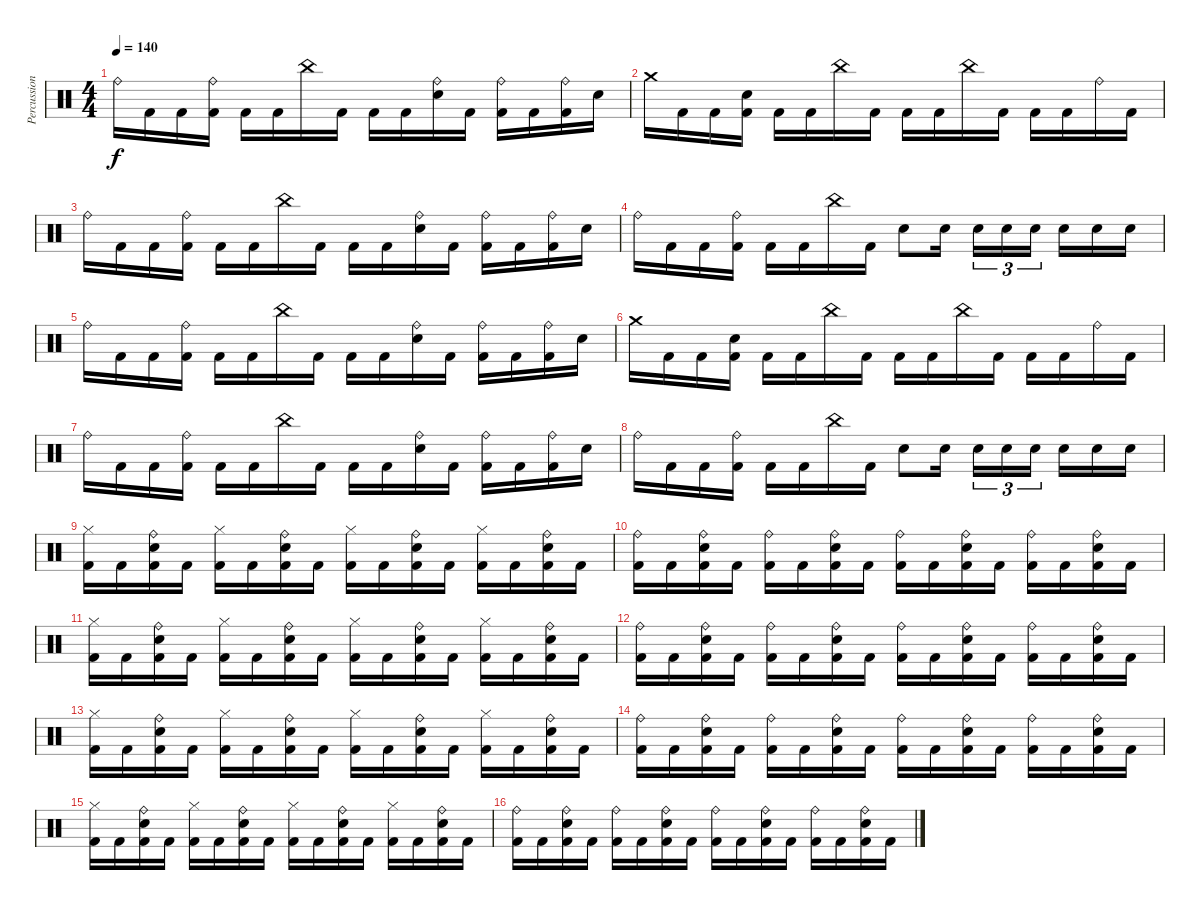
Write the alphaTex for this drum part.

\track ("Percussion" "Percussion") {instrument percussion}
\staff {score}
\articulation defaults
\ts (4 4)
\tempo 140
\clef neutral
\ks c "Ride (bell)".16{dy f} "Kick (hit) 2".16 "Kick (hit) 2".16
("Ride (bell)" "Kick (hit) 2").16 "Kick (hit) 2".16 "Kick (hit) 2".16 "China (hit)".16 "Kick (hit) 2".16 "Kick (hit) 2".16 "Kick (hit) 2".16 ("Ride (bell)" "Snare (hit) 2").16 "Kick (hit) 2".16 ("Ride (bell)" "Kick (hit) 2").16 "Kick (hit) 2".16 ("Ride (bell)" "Kick (hit) 2").16 "Snare (hit) 2".16 |
"Crash medium (hit)".16 "Kick (hit) 2".16 "Kick (hit) 2".16 ("Snare (hit) 2" "Kick (hit) 2").16 "Kick (hit) 2".16 "Kick (hit) 2".16 "China (hit)".16 "Kick (hit) 2".16 "Kick (hit) 2".16 "Kick (hit) 2".16 "China (hit)".16 "Kick (hit) 2".16 "Kick (hit) 2".16 "Kick (hit) 2".16 "Ride (bell)".16 "Kick (hit) 2".16 |
"Ride (bell)".16 "Kick (hit) 2".16 "Kick (hit) 2".16 ("Ride (bell)" "Kick (hit) 2").16 "Kick (hit) 2".16 "Kick (hit) 2".16 "China (hit)".16 "Kick (hit) 2".16 "Kick (hit) 2".16 "Kick (hit) 2".16 ("Ride (bell)" "Snare (hit) 2").16 "Kick (hit) 2".16 ("Ride (bell)" "Kick (hit) 2").16 "Kick (hit) 2".16 ("Ride (bell)" "Kick (hit) 2").16 "Snare (hit) 2".16 |
"Ride (bell)".16 "Kick (hit) 2".16 "Kick (hit) 2".16 ("Ride (bell)" "Kick (hit) 2").16 "Kick (hit) 2".16 "Kick (hit) 2".16 "China (hit)".16 "Kick (hit) 2".16 "Snare (hit) 2".8 "Snare (hit) 2".16{beam splitsecondary} "Snare (hit) 2".16{tu (3 2)} "Snare (hit) 2".16{tu (3 2)} "Snare (hit) 2".16{tu (3 2) beam splitsecondary} "Snare (hit) 2".16 "Snare (hit) 2".16 "Snare (hit) 2".16 |
"Ride (bell)".16 "Kick (hit) 2".16 "Kick (hit) 2".16 ("Ride (bell)" "Kick (hit) 2").16 "Kick (hit) 2".16 "Kick (hit) 2".16 "China (hit)".16 "Kick (hit) 2".16 "Kick (hit) 2".16 "Kick (hit) 2".16 ("Ride (bell)" "Snare (hit) 2").16 "Kick (hit) 2".16 ("Ride (bell)" "Kick (hit) 2").16 "Kick (hit) 2".16 ("Ride (bell)" "Kick (hit) 2").16 "Snare (hit) 2".16 |
"Crash medium (hit)".16 "Kick (hit) 2".16 "Kick (hit) 2".16 ("Snare (hit) 2" "Kick (hit) 2").16 "Kick (hit) 2".16 "Kick (hit) 2".16 "China (hit)".16 "Kick (hit) 2".16 "Kick (hit) 2".16 "Kick (hit) 2".16 "China (hit)".16 "Kick (hit) 2".16 "Kick (hit) 2".16 "Kick (hit) 2".16 "Ride (bell)".16 "Kick (hit) 2".16 |
"Ride (bell)".16 "Kick (hit) 2".16 "Kick (hit) 2".16 ("Ride (bell)" "Kick (hit) 2").16 "Kick (hit) 2".16 "Kick (hit) 2".16 "China (hit)".16 "Kick (hit) 2".16 "Kick (hit) 2".16 "Kick (hit) 2".16 ("Ride (bell)" "Snare (hit) 2").16 "Kick (hit) 2".16 ("Ride (bell)" "Kick (hit) 2").16 "Kick (hit) 2".16 ("Ride (bell)" "Kick (hit) 2").16 "Snare (hit) 2".16 |
"Ride (bell)".16 "Kick (hit) 2".16 "Kick (hit) 2".16 ("Ride (bell)" "Kick (hit) 2").16 "Kick (hit) 2".16 "Kick (hit) 2".16 "China (hit)".16 "Kick (hit) 2".16 "Snare (hit) 2".8 "Snare (hit) 2".16{beam splitsecondary} "Snare (hit) 2".16{tu (3 2)} "Snare (hit) 2".16{tu (3 2)} "Snare (hit) 2".16{tu (3 2) beam splitsecondary} "Snare (hit) 2".16 "Snare (hit) 2".16 "Snare (hit) 2".16 |
("Hi-Hat (closed)" "Kick (hit) 2").16 "Kick (hit) 2".16 ("Ride (bell)" "Snare (hit) 2" "Kick (hit) 2").16 "Kick (hit) 2".16 ("Hi-Hat (closed)" "Kick (hit) 2").16 "Kick (hit) 2".16 ("Ride (bell)" "Snare (hit) 2" "Kick (hit) 2").16 "Kick (hit) 2".16 ("Hi-Hat (closed)" "Kick (hit) 2").16 "Kick (hit) 2".16 ("Ride (bell)" "Snare (hit) 2" "Kick (hit) 2").16 "Kick (hit) 2".16 ("Hi-Hat (closed)" "Kick (hit) 2").16 "Kick (hit) 2".16 ("Ride (bell)" "Snare (hit) 2" "Kick (hit) 2").16 "Kick (hit) 2".16 |
("Ride (bell)" "Kick (hit) 2").16 "Kick (hit) 2".16 ("Ride (bell)" "Snare (hit) 2" "Kick (hit) 2").16 "Kick (hit) 2".16 ("Ride (bell)" "Kick (hit) 2").16 "Kick (hit) 2".16 ("Ride (bell)" "Snare (hit) 2" "Kick (hit) 2").16 "Kick (hit) 2".16 ("Ride (bell)" "Kick (hit) 2").16 "Kick (hit) 2".16 ("Ride (bell)" "Snare (hit) 2" "Kick (hit) 2").16 "Kick (hit) 2".16 ("Ride (bell)" "Kick (hit) 2").16 "Kick (hit) 2".16 ("Ride (bell)" "Snare (hit) 2" "Kick (hit) 2").16 "Kick (hit) 2".16 |
("Hi-Hat (closed)" "Kick (hit) 2").16 "Kick (hit) 2".16 ("Ride (bell)" "Snare (hit) 2" "Kick (hit) 2").16 "Kick (hit) 2".16 ("Hi-Hat (closed)" "Kick (hit) 2").16 "Kick (hit) 2".16 ("Ride (bell)" "Snare (hit) 2" "Kick (hit) 2").16 "Kick (hit) 2".16 ("Hi-Hat (closed)" "Kick (hit) 2").16 "Kick (hit) 2".16 ("Ride (bell)" "Snare (hit) 2" "Kick (hit) 2").16 "Kick (hit) 2".16 ("Hi-Hat (closed)" "Kick (hit) 2").16 "Kick (hit) 2".16 ("Ride (bell)" "Snare (hit) 2" "Kick (hit) 2").16 "Kick (hit) 2".16 |
("Ride (bell)" "Kick (hit) 2").16 "Kick (hit) 2".16 ("Ride (bell)" "Snare (hit) 2" "Kick (hit) 2").16 "Kick (hit) 2".16 ("Ride (bell)" "Kick (hit) 2").16 "Kick (hit) 2".16 ("Ride (bell)" "Snare (hit) 2" "Kick (hit) 2").16 "Kick (hit) 2".16 ("Ride (bell)" "Kick (hit) 2").16 "Kick (hit) 2".16 ("Ride (bell)" "Snare (hit) 2" "Kick (hit) 2").16 "Kick (hit) 2".16 ("Ride (bell)" "Kick (hit) 2").16 "Kick (hit) 2".16 ("Ride (bell)" "Snare (hit) 2" "Kick (hit) 2").16 "Kick (hit) 2".16 |
("Hi-Hat (closed)" "Kick (hit) 2").16 "Kick (hit) 2".16 ("Ride (bell)" "Snare (hit) 2" "Kick (hit) 2").16 "Kick (hit) 2".16 ("Hi-Hat (closed)" "Kick (hit) 2").16 "Kick (hit) 2".16 ("Ride (bell)" "Snare (hit) 2" "Kick (hit) 2").16 "Kick (hit) 2".16 ("Hi-Hat (closed)" "Kick (hit) 2").16 "Kick (hit) 2".16 ("Ride (bell)" "Snare (hit) 2" "Kick (hit) 2").16 "Kick (hit) 2".16 ("Hi-Hat (closed)" "Kick (hit) 2").16 "Kick (hit) 2".16 ("Ride (bell)" "Snare (hit) 2" "Kick (hit) 2").16 "Kick (hit) 2".16 |
("Ride (bell)" "Kick (hit) 2").16 "Kick (hit) 2".16 ("Ride (bell)" "Snare (hit) 2" "Kick (hit) 2").16 "Kick (hit) 2".16 ("Ride (bell)" "Kick (hit) 2").16 "Kick (hit) 2".16 ("Ride (bell)" "Snare (hit) 2" "Kick (hit) 2").16 "Kick (hit) 2".16 ("Ride (bell)" "Kick (hit) 2").16 "Kick (hit) 2".16 ("Ride (bell)" "Snare (hit) 2" "Kick (hit) 2").16 "Kick (hit) 2".16 ("Ride (bell)" "Kick (hit) 2").16 "Kick (hit) 2".16 ("Ride (bell)" "Snare (hit) 2" "Kick (hit) 2").16 "Kick (hit) 2".16 |
("Hi-Hat (closed)" "Kick (hit) 2").16 "Kick (hit) 2".16 ("Ride (bell)" "Snare (hit) 2" "Kick (hit) 2").16 "Kick (hit) 2".16 ("Hi-Hat (closed)" "Kick (hit) 2").16 "Kick (hit) 2".16 ("Ride (bell)" "Snare (hit) 2" "Kick (hit) 2").16 "Kick (hit) 2".16 ("Hi-Hat (closed)" "Kick (hit) 2").16 "Kick (hit) 2".16 ("Ride (bell)" "Snare (hit) 2" "Kick (hit) 2").16 "Kick (hit) 2".16 ("Hi-Hat (closed)" "Kick (hit) 2").16 "Kick (hit) 2".16 ("Ride (bell)" "Snare (hit) 2" "Kick (hit) 2").16 "Kick (hit) 2".16 |
("Ride (bell)" "Kick (hit) 2").16 "Kick (hit) 2".16 ("Ride (bell)" "Snare (hit) 2" "Kick (hit) 2").16 "Kick (hit) 2".16 ("Ride (bell)" "Kick (hit) 2").16 "Kick (hit) 2".16 ("Ride (bell)" "Snare (hit) 2" "Kick (hit) 2").16 "Kick (hit) 2".16 ("Ride (bell)" "Kick (hit) 2").16 "Kick (hit) 2".16 ("Ride (bell)" "Snare (hit) 2" "Kick (hit) 2").16 "Kick (hit) 2".16 ("Ride (bell)" "Kick (hit) 2").16 "Kick (hit) 2".16 ("Ride (bell)" "Snare (hit) 2" "Kick (hit) 2").16 "Kick (hit) 2".16
